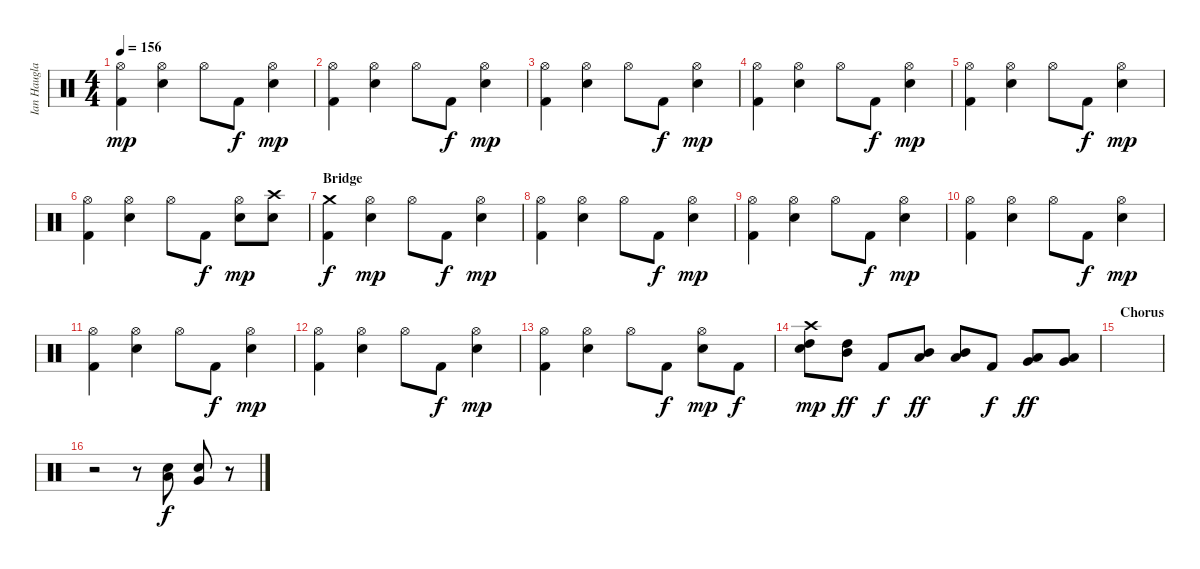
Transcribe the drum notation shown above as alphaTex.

\track ("Ian Haugland" "Ian Haugla") {instrument percussion}
\staff {score}
\articulation defaults
\ts (4 4)
\tempo 156
\clef neutral
\ks c
("Kick (hit) 2" "Hi-Hat (open)").4{dy mp} ("Hi-Hat (open)" "Snare (hit) 2").4 "Hi-Hat (open)".8 "Kick (hit) 2".8{dy f} ("Hi-Hat (open)" "Snare (hit) 2").4{dy mp} |
("Kick (hit) 2" "Hi-Hat (open)").4 ("Hi-Hat (open)" "Snare (hit) 2").4 "Hi-Hat (open)".8 "Kick (hit) 2".8{dy f} ("Hi-Hat (open)" "Snare (hit) 2").4{dy mp} |
("Kick (hit) 2" "Hi-Hat (open)").4 ("Hi-Hat (open)" "Snare (hit) 2").4 "Hi-Hat (open)".8 "Kick (hit) 2".8{dy f} ("Hi-Hat (open)" "Snare (hit) 2").4{dy mp} |
("Kick (hit) 2" "Hi-Hat (open)").4 ("Hi-Hat (open)" "Snare (hit) 2").4 "Hi-Hat (open)".8 "Kick (hit) 2".8{dy f} ("Hi-Hat (open)" "Snare (hit) 2").4{dy mp} |
("Kick (hit) 2" "Hi-Hat (open)").4 ("Hi-Hat (open)" "Snare (hit) 2").4 "Hi-Hat (open)".8 "Kick (hit) 2".8{dy f} ("Hi-Hat (open)" "Snare (hit) 2").4{dy mp} |
("Kick (hit) 2" "Hi-Hat (open)").4 ("Hi-Hat (open)" "Snare (hit) 2").4 "Hi-Hat (open)".8 "Kick (hit) 2".8{dy f} ("Hi-Hat (open)" "Snare (hit) 2").8{dy mp} ("Crash high (hit)" "Snare (hit) 2").8 |
\section ("" "Bridge")
("Kick (hit) 2" "Crash medium (hit)").4{dy f} ("Hi-Hat (open)" "Snare (hit) 2").4{dy mp} "Hi-Hat (open)".8 "Kick (hit) 2".8{dy f} ("Hi-Hat (open)" "Snare (hit) 2").4{dy mp} |
("Kick (hit) 2" "Hi-Hat (open)").4 ("Hi-Hat (open)" "Snare (hit) 2").4 "Hi-Hat (open)".8 "Kick (hit) 2".8{dy f} ("Hi-Hat (open)" "Snare (hit) 2").4{dy mp} |
("Kick (hit) 2" "Hi-Hat (open)").4 ("Hi-Hat (open)" "Snare (hit) 2").4 "Hi-Hat (open)".8 "Kick (hit) 2".8{dy f} ("Hi-Hat (open)" "Snare (hit) 2").4{dy mp} |
("Kick (hit) 2" "Hi-Hat (open)").4 ("Hi-Hat (open)" "Snare (hit) 2").4 "Hi-Hat (open)".8 "Kick (hit) 2".8{dy f} ("Hi-Hat (open)" "Snare (hit) 2").4{dy mp} |
("Kick (hit) 2" "Hi-Hat (open)").4 ("Hi-Hat (open)" "Snare (hit) 2").4 "Hi-Hat (open)".8 "Kick (hit) 2".8{dy f} ("Hi-Hat (open)" "Snare (hit) 2").4{dy mp} |
("Kick (hit) 2" "Hi-Hat (open)").4 ("Hi-Hat (open)" "Snare (hit) 2").4 "Hi-Hat (open)".8 "Kick (hit) 2".8{dy f} ("Hi-Hat (open)" "Snare (hit) 2").4{dy mp} |
("Kick (hit) 2" "Hi-Hat (open)").4 ("Hi-Hat (open)" "Snare (hit) 2").4 "Hi-Hat (open)".8 "Kick (hit) 2".8{dy f} ("Hi-Hat (open)" "Snare (hit) 2").8{dy mp} "Kick (hit) 2".8{dy f} |
("Crash high (hit)" "High Tom (hit)" "Snare (hit) 2").8{dy mp} ("High Tom (hit)" "Mid Tom (hit)").8{dy ff} "Kick (hit) 2".8{dy f} ("Mid Tom (hit)" "Low Tom (hit)").8{dy ff} ("Mid Tom (hit)" "Low Tom (hit)").8 "Kick (hit) 2".8{dy f} ("Low Tom (hit)" "Very Low Tom (hit)").8{dy ff} ("Low Tom (hit)" "Very Low Tom (hit)").8 |
\section ("" "Chorus")
|
r.2 r.8 ("Snare (hit) 2" "Low Tom (hit)").8{dy f} ("Snare (hit) 2" "Very Low Tom (hit)").8 r.8
